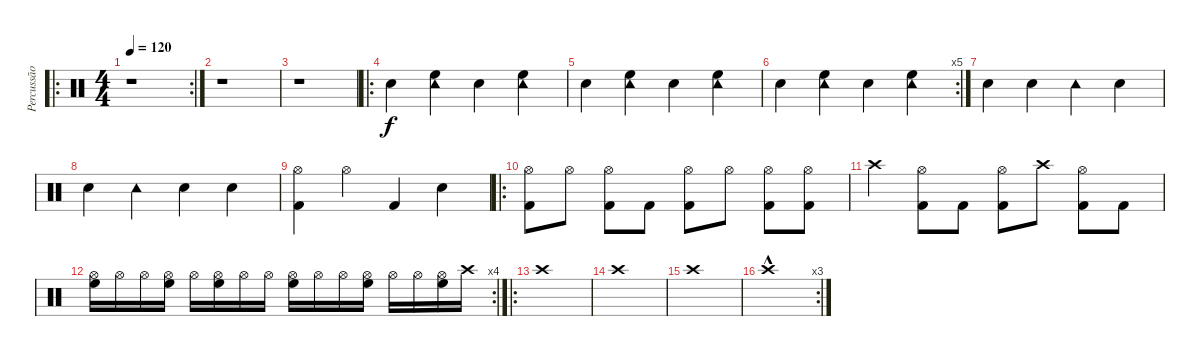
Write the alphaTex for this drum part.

\track ("Percussão" "Percussão") {instrument percussion}
\staff {score}
\articulation defaults
\ro
\rc 2
\ts (4 4)
\tempo 120
\clef neutral
\ks c
r.1{dy f} |
r.1 |
r.1 |
\ro "Electric Snare (hit)".4
("Tambourine (hit)" "High Floor Tom (hit)").4 "Electric Snare (hit)".4 ("Tambourine (hit)" "High Floor Tom (hit)").4 |
"Electric Snare (hit)".4 ("Tambourine (hit)" "High Floor Tom (hit)").4 "Electric Snare (hit)".4 ("Tambourine (hit)" "High Floor Tom (hit)").4 |
\rc 5 "Electric Snare (hit)".4
("Tambourine (hit)" "High Floor Tom (hit)").4 "Electric Snare (hit)".4 ("Tambourine (hit)" "High Floor Tom (hit)").4 |
"Electric Snare (hit)".4 "Electric Snare (hit)".4 "Tambourine (hit)".4 "Electric Snare (hit)".4 |
"Electric Snare (hit)".4 "Tambourine (hit)".4 "Electric Snare (hit)".4 "Electric Snare (hit)".4 |
("Hi-Hat (open)" "Kick (hit) 2").4 "Hi-Hat (open)".4 "Kick (hit) 2".4 "Electric Snare (hit)".4 |
\ro
("Hi-Hat (open)" "Kick (hit) 2").8 "Hi-Hat (open)".8 ("Hi-Hat (open)" "Kick (hit) 2").8 "Kick (hit) 2".8 ("Hi-Hat (open)" "Kick (hit) 2").8 "Hi-Hat (open)".8 ("Hi-Hat (open)" "Kick (hit) 2").8 ("Hi-Hat (open)" "Kick (hit) 2").8 |
"Crash high (hit)".4 ("Kick (hit) 2" "Hi-Hat (open)").8 "Kick (hit) 2".8 ("Hi-Hat (open)" "Kick (hit) 2").8 "Crash high (hit)".8 ("Hi-Hat (open)" "Kick (hit) 2").8 "Kick (hit) 2".8 |
\rc 4
("High Floor Tom (hit)" "Hi-Hat (open)").16 "Hi-Hat (open)".16 "Hi-Hat (open)".16 ("High Floor Tom (hit)" "Hi-Hat (open)").16 "Hi-Hat (open)".16 ("High Floor Tom (hit)" "Hi-Hat (open)").16 "Hi-Hat (open)".16 "Hi-Hat (open)".16 ("High Floor Tom (hit)" "Hi-Hat (open)").16 "Hi-Hat (open)".16 "Hi-Hat (open)".16 ("High Floor Tom (hit)" "Hi-Hat (open)").16 "Hi-Hat (open)".16 "Hi-Hat (open)".16 ("High Floor Tom (hit)" "Hi-Hat (open)").16 "Crash high (hit)".16 |
\ro "Crash high (hit)".1
|
"Crash high (hit)".1 |
"Crash high (hit)".1 |
\rc 3 "Crash high (hit)"{hac}.1
